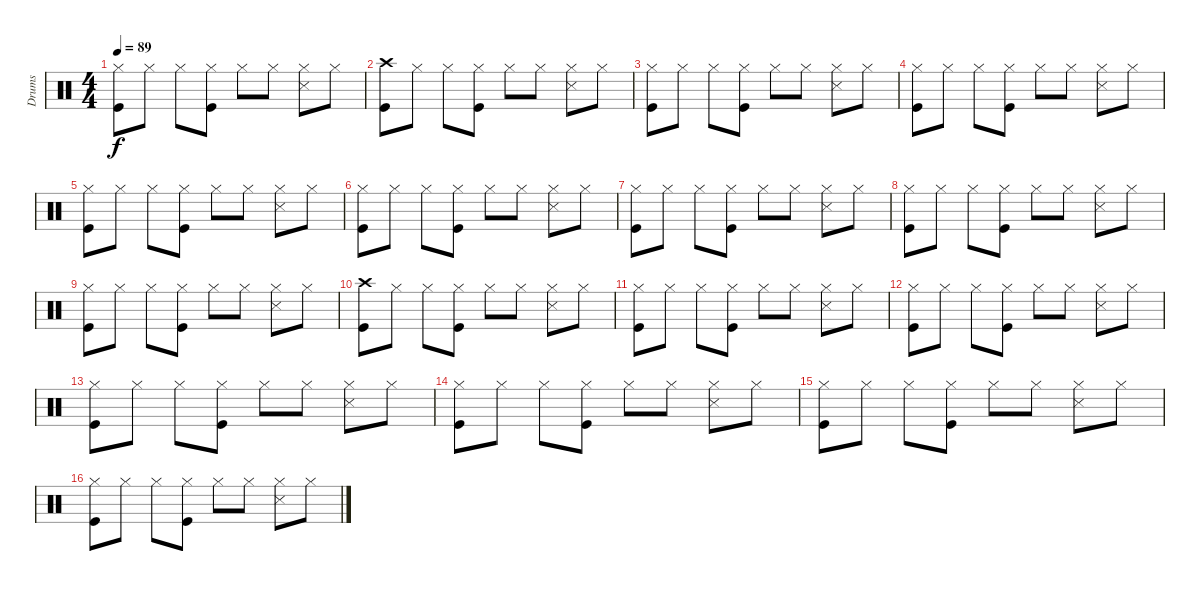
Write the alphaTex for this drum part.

\track ("Drums" "Drums") {instrument percussion}
\staff {score}
\articulation defaults
\ts (4 4)
\tempo 89
\clef neutral
\ks c
("Hi-Hat (closed)" "Kick (hit)").8{dy f} "Hi-Hat (closed)".8 "Hi-Hat (closed)".8 ("Hi-Hat (closed)" "Kick (hit)").8 "Hi-Hat (closed)".8 "Hi-Hat (closed)".8 ("Hi-Hat (closed)" "Snare (side stick) 3").8 "Hi-Hat (closed)".8 |
("Crash high (hit)" "Kick (hit)").8 "Hi-Hat (closed)".8 "Hi-Hat (closed)".8 ("Hi-Hat (closed)" "Kick (hit)").8 "Hi-Hat (closed)".8 "Hi-Hat (closed)".8 ("Hi-Hat (closed)" "Snare (side stick) 3").8 "Hi-Hat (closed)".8 |
("Hi-Hat (closed)" "Kick (hit)").8 "Hi-Hat (closed)".8 "Hi-Hat (closed)".8 ("Hi-Hat (closed)" "Kick (hit)").8 "Hi-Hat (closed)".8 "Hi-Hat (closed)".8 ("Hi-Hat (closed)" "Snare (side stick) 3").8 "Hi-Hat (closed)".8 |
("Hi-Hat (closed)" "Kick (hit)").8 "Hi-Hat (closed)".8 "Hi-Hat (closed)".8 ("Hi-Hat (closed)" "Kick (hit)").8 "Hi-Hat (closed)".8 "Hi-Hat (closed)".8 ("Hi-Hat (closed)" "Snare (side stick) 3").8 "Hi-Hat (closed)".8 |
("Hi-Hat (closed)" "Kick (hit)").8 "Hi-Hat (closed)".8 "Hi-Hat (closed)".8 ("Hi-Hat (closed)" "Kick (hit)").8 "Hi-Hat (closed)".8 "Hi-Hat (closed)".8 ("Hi-Hat (closed)" "Snare (side stick) 3").8 "Hi-Hat (closed)".8 |
("Hi-Hat (closed)" "Kick (hit)").8 "Hi-Hat (closed)".8 "Hi-Hat (closed)".8 ("Hi-Hat (closed)" "Kick (hit)").8 "Hi-Hat (closed)".8 "Hi-Hat (closed)".8 ("Hi-Hat (closed)" "Snare (side stick) 3").8 "Hi-Hat (closed)".8 |
("Hi-Hat (closed)" "Kick (hit)").8 "Hi-Hat (closed)".8 "Hi-Hat (closed)".8 ("Hi-Hat (closed)" "Kick (hit)").8 "Hi-Hat (closed)".8 "Hi-Hat (closed)".8 ("Hi-Hat (closed)" "Snare (side stick) 3").8 "Hi-Hat (closed)".8 |
("Hi-Hat (closed)" "Kick (hit)").8 "Hi-Hat (closed)".8 "Hi-Hat (closed)".8 ("Hi-Hat (closed)" "Kick (hit)").8 "Hi-Hat (closed)".8 "Hi-Hat (closed)".8 ("Hi-Hat (closed)" "Snare (side stick) 3").8 "Hi-Hat (closed)".8 |
("Hi-Hat (closed)" "Kick (hit)").8 "Hi-Hat (closed)".8 "Hi-Hat (closed)".8 ("Hi-Hat (closed)" "Kick (hit)").8 "Hi-Hat (closed)".8 "Hi-Hat (closed)".8 ("Hi-Hat (closed)" "Snare (side stick) 3").8 "Hi-Hat (closed)".8 |
("Crash high (hit)" "Kick (hit)").8 "Hi-Hat (closed)".8 "Hi-Hat (closed)".8 ("Hi-Hat (closed)" "Kick (hit)").8 "Hi-Hat (closed)".8 "Hi-Hat (closed)".8 ("Hi-Hat (closed)" "Snare (side stick) 3").8 "Hi-Hat (closed)".8 |
("Hi-Hat (closed)" "Kick (hit)").8 "Hi-Hat (closed)".8 "Hi-Hat (closed)".8 ("Hi-Hat (closed)" "Kick (hit)").8 "Hi-Hat (closed)".8 "Hi-Hat (closed)".8 ("Hi-Hat (closed)" "Snare (side stick) 3").8 "Hi-Hat (closed)".8 |
("Hi-Hat (closed)" "Kick (hit)").8 "Hi-Hat (closed)".8 "Hi-Hat (closed)".8 ("Hi-Hat (closed)" "Kick (hit)").8 "Hi-Hat (closed)".8 "Hi-Hat (closed)".8 ("Hi-Hat (closed)" "Snare (side stick) 3").8 "Hi-Hat (closed)".8 |
("Hi-Hat (closed)" "Kick (hit)").8 "Hi-Hat (closed)".8 "Hi-Hat (closed)".8 ("Hi-Hat (closed)" "Kick (hit)").8 "Hi-Hat (closed)".8 "Hi-Hat (closed)".8 ("Hi-Hat (closed)" "Snare (side stick) 3").8 "Hi-Hat (closed)".8 |
("Hi-Hat (closed)" "Kick (hit)").8 "Hi-Hat (closed)".8 "Hi-Hat (closed)".8 ("Hi-Hat (closed)" "Kick (hit)").8 "Hi-Hat (closed)".8 "Hi-Hat (closed)".8 ("Hi-Hat (closed)" "Snare (side stick) 3").8 "Hi-Hat (closed)".8 |
("Hi-Hat (closed)" "Kick (hit)").8 "Hi-Hat (closed)".8 "Hi-Hat (closed)".8 ("Hi-Hat (closed)" "Kick (hit)").8 "Hi-Hat (closed)".8 "Hi-Hat (closed)".8 ("Hi-Hat (closed)" "Snare (side stick) 3").8 "Hi-Hat (closed)".8 |
("Hi-Hat (closed)" "Kick (hit)").8 "Hi-Hat (closed)".8 "Hi-Hat (closed)".8 ("Hi-Hat (closed)" "Kick (hit)").8 "Hi-Hat (closed)".8 "Hi-Hat (closed)".8 ("Hi-Hat (closed)" "Snare (side stick) 3").8 "Hi-Hat (closed)".8
